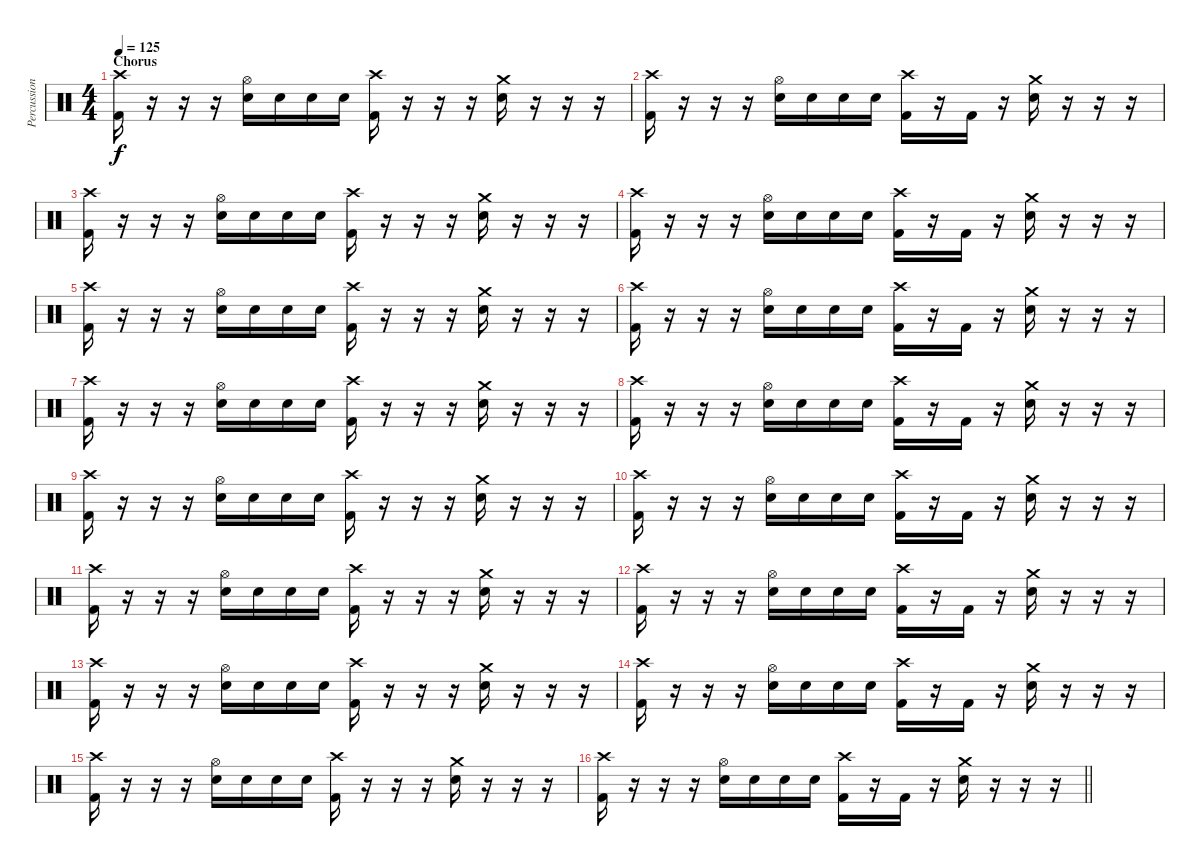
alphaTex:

\track ("Percussion" "Percussion") {instrument percussion}
\staff {score}
\articulation defaults
\ts (4 4)
\section ("" "Chorus")
\tempo 125
\clef neutral
\ks c
("Crash high (hit)" "Kick (hit) 2").16{dy f} r.16 r.16 r.16 ("Hi-Hat (open)" "Snare (hit) 2").16 "Snare (hit) 2".16 "Snare (hit) 2".16 "Snare (hit) 2".16 ("Crash high (hit)" "Kick (hit) 2").16 r.16 r.16 r.16 ("Crash medium (hit)" "Snare (hit) 2").16 r.16 r.16 r.16 |
("Crash high (hit)" "Kick (hit) 2").16 r.16 r.16 r.16 ("Hi-Hat (open)" "Snare (hit) 2").16 "Snare (hit) 2".16 "Snare (hit) 2".16 "Snare (hit) 2".16 ("Crash high (hit)" "Kick (hit) 2").16 r.16 "Kick (hit) 2".16 r.16 ("Crash medium (hit)" "Snare (hit) 2").16 r.16 r.16 r.16 |
("Crash high (hit)" "Kick (hit) 2").16 r.16 r.16 r.16 ("Hi-Hat (open)" "Snare (hit) 2").16 "Snare (hit) 2".16 "Snare (hit) 2".16 "Snare (hit) 2".16 ("Crash high (hit)" "Kick (hit) 2").16 r.16 r.16 r.16 ("Crash medium (hit)" "Snare (hit) 2").16 r.16 r.16 r.16 |
("Crash high (hit)" "Kick (hit) 2").16 r.16 r.16 r.16 ("Hi-Hat (open)" "Snare (hit) 2").16 "Snare (hit) 2".16 "Snare (hit) 2".16 "Snare (hit) 2".16 ("Crash high (hit)" "Kick (hit) 2").16 r.16 "Kick (hit) 2".16 r.16 ("Crash medium (hit)" "Snare (hit) 2").16 r.16 r.16 r.16 |
("Crash high (hit)" "Kick (hit) 2").16 r.16 r.16 r.16 ("Hi-Hat (open)" "Snare (hit) 2").16 "Snare (hit) 2".16 "Snare (hit) 2".16 "Snare (hit) 2".16 ("Crash high (hit)" "Kick (hit) 2").16 r.16 r.16 r.16 ("Crash medium (hit)" "Snare (hit) 2").16 r.16 r.16 r.16 |
("Crash high (hit)" "Kick (hit) 2").16 r.16 r.16 r.16 ("Hi-Hat (open)" "Snare (hit) 2").16 "Snare (hit) 2".16 "Snare (hit) 2".16 "Snare (hit) 2".16 ("Crash high (hit)" "Kick (hit) 2").16 r.16 "Kick (hit) 2".16 r.16 ("Crash medium (hit)" "Snare (hit) 2").16 r.16 r.16 r.16 |
("Crash high (hit)" "Kick (hit) 2").16 r.16 r.16 r.16 ("Hi-Hat (open)" "Snare (hit) 2").16 "Snare (hit) 2".16 "Snare (hit) 2".16 "Snare (hit) 2".16 ("Crash high (hit)" "Kick (hit) 2").16 r.16 r.16 r.16 ("Crash medium (hit)" "Snare (hit) 2").16 r.16 r.16 r.16 |
("Crash high (hit)" "Kick (hit) 2").16 r.16 r.16 r.16 ("Hi-Hat (open)" "Snare (hit) 2").16 "Snare (hit) 2".16 "Snare (hit) 2".16 "Snare (hit) 2".16 ("Crash high (hit)" "Kick (hit) 2").16 r.16 "Kick (hit) 2".16 r.16 ("Crash medium (hit)" "Snare (hit) 2").16 r.16 r.16 r.16 |
("Crash high (hit)" "Kick (hit) 2").16 r.16 r.16 r.16 ("Hi-Hat (open)" "Snare (hit) 2").16 "Snare (hit) 2".16 "Snare (hit) 2".16 "Snare (hit) 2".16 ("Crash high (hit)" "Kick (hit) 2").16 r.16 r.16 r.16 ("Crash medium (hit)" "Snare (hit) 2").16 r.16 r.16 r.16 |
("Crash high (hit)" "Kick (hit) 2").16 r.16 r.16 r.16 ("Hi-Hat (open)" "Snare (hit) 2").16 "Snare (hit) 2".16 "Snare (hit) 2".16 "Snare (hit) 2".16 ("Crash high (hit)" "Kick (hit) 2").16 r.16 "Kick (hit) 2".16 r.16 ("Crash medium (hit)" "Snare (hit) 2").16 r.16 r.16 r.16 |
("Crash high (hit)" "Kick (hit) 2").16 r.16 r.16 r.16 ("Hi-Hat (open)" "Snare (hit) 2").16 "Snare (hit) 2".16 "Snare (hit) 2".16 "Snare (hit) 2".16 ("Crash high (hit)" "Kick (hit) 2").16 r.16 r.16 r.16 ("Crash medium (hit)" "Snare (hit) 2").16 r.16 r.16 r.16 |
("Crash high (hit)" "Kick (hit) 2").16 r.16 r.16 r.16 ("Hi-Hat (open)" "Snare (hit) 2").16 "Snare (hit) 2".16 "Snare (hit) 2".16 "Snare (hit) 2".16 ("Crash high (hit)" "Kick (hit) 2").16 r.16 "Kick (hit) 2".16 r.16 ("Crash medium (hit)" "Snare (hit) 2").16 r.16 r.16 r.16 |
("Crash high (hit)" "Kick (hit) 2").16 r.16 r.16 r.16 ("Hi-Hat (open)" "Snare (hit) 2").16 "Snare (hit) 2".16 "Snare (hit) 2".16 "Snare (hit) 2".16 ("Crash high (hit)" "Kick (hit) 2").16 r.16 r.16 r.16 ("Crash medium (hit)" "Snare (hit) 2").16 r.16 r.16 r.16 |
("Crash high (hit)" "Kick (hit) 2").16 r.16 r.16 r.16 ("Hi-Hat (open)" "Snare (hit) 2").16 "Snare (hit) 2".16 "Snare (hit) 2".16 "Snare (hit) 2".16 ("Crash high (hit)" "Kick (hit) 2").16 r.16 "Kick (hit) 2".16 r.16 ("Crash medium (hit)" "Snare (hit) 2").16 r.16 r.16 r.16 |
("Crash high (hit)" "Kick (hit) 2").16 r.16 r.16 r.16 ("Hi-Hat (open)" "Snare (hit) 2").16 "Snare (hit) 2".16 "Snare (hit) 2".16 "Snare (hit) 2".16 ("Crash high (hit)" "Kick (hit) 2").16 r.16 r.16 r.16 ("Crash medium (hit)" "Snare (hit) 2").16 r.16 r.16 r.16 |
\barLineRight lightlight
("Crash high (hit)" "Kick (hit) 2").16 r.16 r.16 r.16 ("Hi-Hat (open)" "Snare (hit) 2").16 "Snare (hit) 2".16 "Snare (hit) 2".16 "Snare (hit) 2".16 ("Crash high (hit)" "Kick (hit) 2").16 r.16 "Kick (hit) 2".16 r.16 ("Crash medium (hit)" "Snare (hit) 2").16 r.16 r.16 r.16
